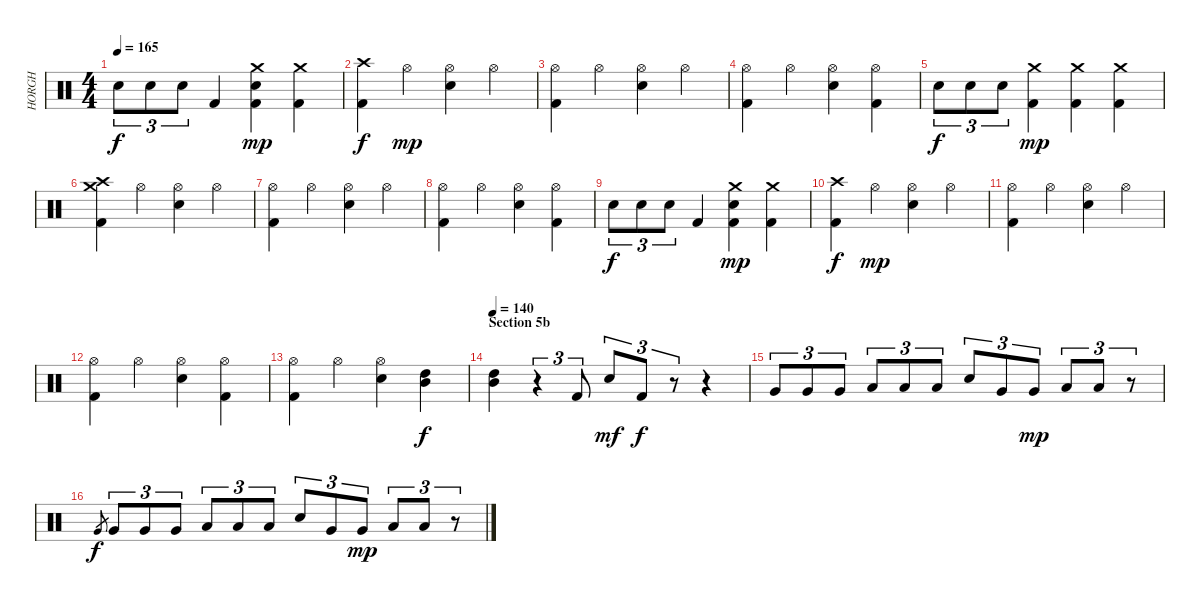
\track ("HORGH" "HORGH") {instrument percussion}
\staff {score}
\articulation defaults
\ts (4 4)
\tempo 165
\clef neutral
\ks c "Electric Snare (hit)".8{tu (3 2) dy f} "Electric Snare (hit)".8{tu (3 2)} "Electric Snare (hit)".8{tu (3 2)} "Kick (hit) 2".4
("Crash medium (hit)" "Electric Snare (hit)" "Kick (hit) 2").4{dy mp} ("Crash medium (hit)" "Kick (hit) 2").4 |
("Crash high (hit)" "Kick (hit) 2").4{dy f} "Hi-Hat (open)".4{dy mp} ("Hi-Hat (open)" "Electric Snare (hit)").4 "Hi-Hat (open)".4 |
("Hi-Hat (open)" "Kick (hit) 2").4 "Hi-Hat (open)".4 ("Hi-Hat (open)" "Electric Snare (hit)").4 "Hi-Hat (open)".4 |
("Hi-Hat (open)" "Kick (hit) 2").4 "Hi-Hat (open)".4 ("Hi-Hat (open)" "Electric Snare (hit)").4 ("Hi-Hat (open)" "Kick (hit) 2").4 |
"Electric Snare (hit)".8{tu (3 2) dy f} "Electric Snare (hit)".8{tu (3 2)} "Electric Snare (hit)".8{tu (3 2)} ("Crash medium (hit)" "Kick (hit) 2").4{dy mp} ("Crash medium (hit)" "Kick (hit) 2").4 ("Crash medium (hit)" "Kick (hit) 2").4 |
("Crash medium (hit)" "Crash high (hit)" "Kick (hit) 2").4 "Hi-Hat (open)".4 ("Hi-Hat (open)" "Electric Snare (hit)").4 "Hi-Hat (open)".4 |
("Hi-Hat (open)" "Kick (hit) 2").4 "Hi-Hat (open)".4 ("Hi-Hat (open)" "Electric Snare (hit)").4 "Hi-Hat (open)".4 |
("Hi-Hat (open)" "Kick (hit) 2").4 "Hi-Hat (open)".4 ("Hi-Hat (open)" "Electric Snare (hit)").4 ("Hi-Hat (open)" "Kick (hit) 2").4 |
"Electric Snare (hit)".8{tu (3 2) dy f} "Electric Snare (hit)".8{tu (3 2)} "Electric Snare (hit)".8{tu (3 2)} "Kick (hit) 2".4 ("Crash medium (hit)" "Electric Snare (hit)" "Kick (hit) 2").4{dy mp} ("Crash medium (hit)" "Kick (hit) 2").4 |
("Crash high (hit)" "Kick (hit) 2").4{dy f} "Hi-Hat (open)".4{dy mp} ("Hi-Hat (open)" "Electric Snare (hit)").4 "Hi-Hat (open)".4 |
("Hi-Hat (open)" "Kick (hit) 2").4 "Hi-Hat (open)".4 ("Hi-Hat (open)" "Electric Snare (hit)").4 "Hi-Hat (open)".4 |
("Hi-Hat (open)" "Kick (hit) 2").4 "Hi-Hat (open)".4 ("Hi-Hat (open)" "Electric Snare (hit)").4 ("Hi-Hat (open)" "Kick (hit) 2").4 |
("Hi-Hat (open)" "Kick (hit) 2").4 "Hi-Hat (open)".4 ("Hi-Hat (open)" "Electric Snare (hit)").4 ("High Tom (hit)" "Mid Tom (hit)").4{dy f} |
\section ("" "Section 5b")
\tempo 140
("High Tom (hit)" "Mid Tom (hit)").4 r.4{tu (3 2)} "Kick (hit) 2".8{tu (3 2)} "Electric Snare (hit)".8{tu (3 2) dy mf} "Kick (hit) 2".8{tu (3 2) dy f} r.8{tu (3 2)} r.4 |
"Very Low Tom (hit)".8{tu (3 2) volume 8} "Very Low Tom (hit)".8{tu (3 2)} "Very Low Tom (hit)".8{tu (3 2)} "Low Floor Tom (hit)".8{tu (3 2)} "Low Floor Tom (hit)".8{tu (3 2)} "Low Floor Tom (hit)".8{tu (3 2)} "Electric Snare (hit)".8{tu (3 2)} "Very Low Tom (hit)".8{tu (3 2)} "Very Low Tom (hit)".8{tu (3 2) dy mp} "Low Floor Tom (hit)".8{tu (3 2)} "Low Floor Tom (hit)".8{tu (3 2)} r.8{tu (3 2)} |
"Very Low Tom (hit)".8{gr dy f} "Very Low Tom (hit)".8{tu (3 2) volume 9} "Very Low Tom (hit)".8{tu (3 2)} "Very Low Tom (hit)".8{tu (3 2)} "Low Floor Tom (hit)".8{tu (3 2)} "Low Floor Tom (hit)".8{tu (3 2)} "Low Floor Tom (hit)".8{tu (3 2)} "Electric Snare (hit)".8{tu (3 2)} "Very Low Tom (hit)".8{tu (3 2)} "Very Low Tom (hit)".8{tu (3 2) dy mp} "Low Floor Tom (hit)".8{tu (3 2)} "Low Floor Tom (hit)".8{tu (3 2)} r.8{tu (3 2)}
